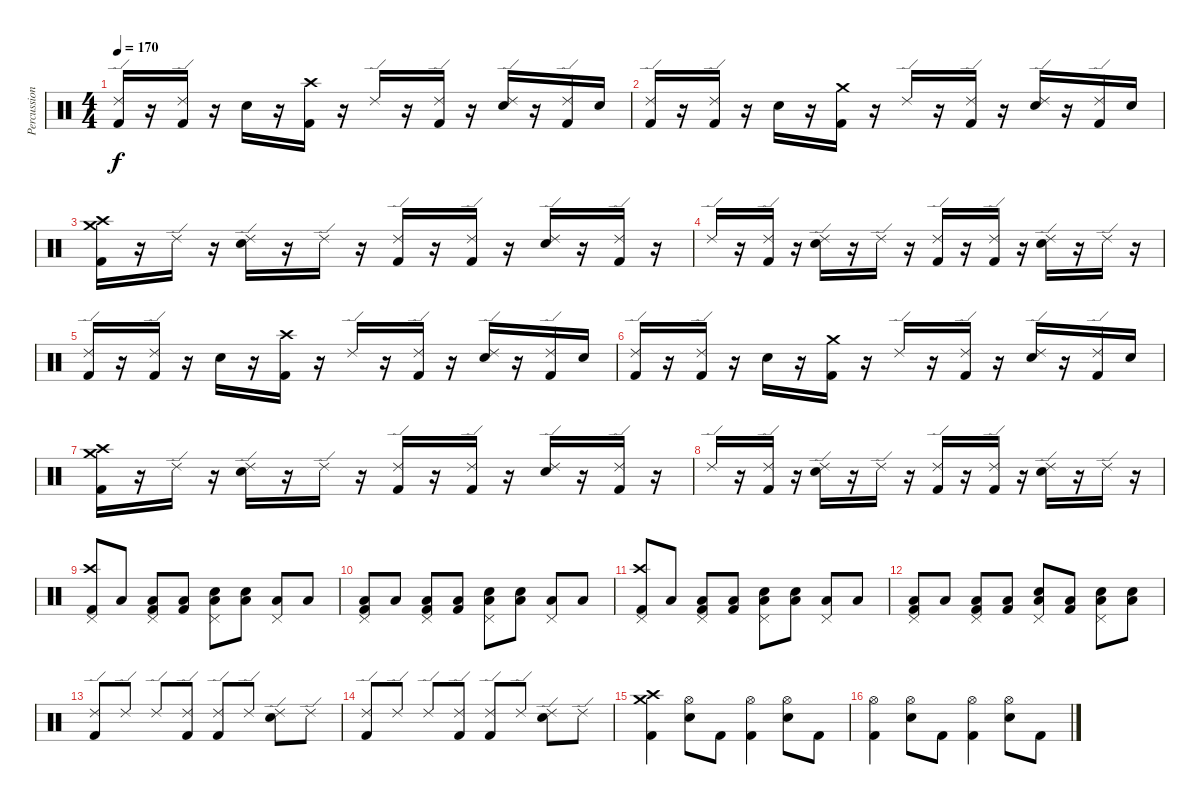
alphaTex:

\track ("Percussion" "Percussion") {instrument percussion}
\staff {score}
\articulation defaults
\ts (4 4)
\tempo 170
\clef neutral
\ks c
("Ride (edge) 2" "Kick (hit) 2").16{dy f} r.16 ("Ride (edge) 2" "Kick (hit) 2").16 r.16 "Snare (hit) 2".16 r.16 ("Crash high (hit)" "Kick (hit) 2").16 r.16 "Ride (edge) 2".16 r.16 ("Ride (edge) 2" "Kick (hit) 2").16 r.16 ("Ride (edge) 2" "Snare (hit) 2").16 r.16 ("Ride (edge) 2" "Kick (hit) 2").16 "Snare (hit) 2".16 |
("Ride (edge) 2" "Kick (hit) 2").16 r.16 ("Ride (edge) 2" "Kick (hit) 2").16 r.16 "Snare (hit) 2".16 r.16 ("Crash medium (hit)" "Kick (hit) 2").16 r.16 "Ride (edge) 2".16 r.16 ("Ride (edge) 2" "Kick (hit) 2").16 r.16 ("Ride (edge) 2" "Snare (hit) 2").16 r.16 ("Ride (edge) 2" "Kick (hit) 2").16 "Snare (hit) 2".16 |
("Crash medium (hit)" "Crash high (hit)" "Kick (hit) 2").16 r.16 "Ride (edge) 2".16 r.16 ("Ride (edge) 2" "Snare (hit) 2").16 r.16 "Ride (edge) 2".16 r.16 ("Ride (edge) 2" "Kick (hit) 2").16 r.16 ("Ride (edge) 2" "Kick (hit) 2").16 r.16 ("Ride (edge) 2" "Snare (hit) 2").16 r.16 ("Ride (edge) 2" "Kick (hit) 2").16 r.16 |
"Ride (edge) 2".16 r.16 ("Ride (edge) 2" "Kick (hit) 2").16 r.16 ("Ride (edge) 2" "Snare (hit) 2").16 r.16 "Ride (edge) 2".16 r.16 ("Ride (edge) 2" "Kick (hit) 2").16 r.16 ("Ride (edge) 2" "Kick (hit) 2").16 r.16 ("Ride (edge) 2" "Snare (hit) 2").16 r.16 "Ride (edge) 2".16 r.16 |
("Ride (edge) 2" "Kick (hit) 2").16 r.16 ("Ride (edge) 2" "Kick (hit) 2").16 r.16 "Snare (hit) 2".16 r.16 ("Crash high (hit)" "Kick (hit) 2").16 r.16 "Ride (edge) 2".16 r.16 ("Ride (edge) 2" "Kick (hit) 2").16 r.16 ("Ride (edge) 2" "Snare (hit) 2").16 r.16 ("Ride (edge) 2" "Kick (hit) 2").16 "Snare (hit) 2".16 |
("Ride (edge) 2" "Kick (hit) 2").16 r.16 ("Ride (edge) 2" "Kick (hit) 2").16 r.16 "Snare (hit) 2".16 r.16 ("Crash medium (hit)" "Kick (hit) 2").16 r.16 "Ride (edge) 2".16 r.16 ("Ride (edge) 2" "Kick (hit) 2").16 r.16 ("Ride (edge) 2" "Snare (hit) 2").16 r.16 ("Ride (edge) 2" "Kick (hit) 2").16 "Snare (hit) 2".16 |
("Crash medium (hit)" "Crash high (hit)" "Kick (hit) 2").16 r.16 "Ride (edge) 2".16 r.16 ("Ride (edge) 2" "Snare (hit) 2").16 r.16 "Ride (edge) 2".16 r.16 ("Ride (edge) 2" "Kick (hit) 2").16 r.16 ("Ride (edge) 2" "Kick (hit) 2").16 r.16 ("Ride (edge) 2" "Snare (hit) 2").16 r.16 ("Ride (edge) 2" "Kick (hit) 2").16 r.16 |
"Ride (edge) 2".16 r.16 ("Ride (edge) 2" "Kick (hit) 2").16 r.16 ("Ride (edge) 2" "Snare (hit) 2").16 r.16 "Ride (edge) 2".16 r.16 ("Ride (edge) 2" "Kick (hit) 2").16 r.16 ("Ride (edge) 2" "Kick (hit) 2").16 r.16 ("Ride (edge) 2" "Snare (hit) 2").16 r.16 "Ride (edge) 2".16 r.16 |
("Pedal Hi-Hat (hit)" "Crash high (hit)" "Kick (hit) 2").8 "Low Tom (hit)".8 ("Pedal Hi-Hat (hit)" "Low Tom (hit)" "Kick (hit) 2").8 ("Low Tom (hit)" "Kick (hit) 2").8 ("Pedal Hi-Hat (hit)" "Low Tom (hit)" "Snare (hit) 2").8 ("Low Tom (hit)" "Snare (hit) 2").8 ("Pedal Hi-Hat (hit)" "Low Tom (hit)").8 "Low Tom (hit)".8 |
("Pedal Hi-Hat (hit)" "Low Tom (hit)" "Kick (hit) 2").8 "Low Tom (hit)".8 ("Pedal Hi-Hat (hit)" "Low Tom (hit)" "Kick (hit) 2").8 ("Low Tom (hit)" "Kick (hit) 2").8 ("Pedal Hi-Hat (hit)" "Low Tom (hit)" "Snare (hit) 2").8 ("Low Tom (hit)" "Snare (hit) 2").8 ("Pedal Hi-Hat (hit)" "Low Tom (hit)").8 "Low Tom (hit)".8 |
("Pedal Hi-Hat (hit)" "Crash high (hit)" "Kick (hit) 2").8 "Low Tom (hit)".8 ("Pedal Hi-Hat (hit)" "Low Tom (hit)" "Kick (hit) 2").8 ("Low Tom (hit)" "Kick (hit) 2").8 ("Pedal Hi-Hat (hit)" "Low Tom (hit)" "Snare (hit) 2").8 ("Low Tom (hit)" "Snare (hit) 2").8 ("Pedal Hi-Hat (hit)" "Low Tom (hit)").8 "Low Tom (hit)".8 |
("Pedal Hi-Hat (hit)" "Low Tom (hit)" "Kick (hit) 2").8 "Low Tom (hit)".8 ("Pedal Hi-Hat (hit)" "Low Tom (hit)" "Kick (hit) 2").8 ("Low Tom (hit)" "Kick (hit) 2").8 ("Pedal Hi-Hat (hit)" "Low Tom (hit)" "Snare (hit) 2").8 ("Low Tom (hit)" "Kick (hit) 2").8 ("Pedal Hi-Hat (hit)" "Low Tom (hit)" "Snare (hit) 2").8 ("Low Tom (hit)" "Snare (hit) 2").8 |
("Kick (hit) 2" "Ride (edge) 2").8 "Ride (edge) 2".8 "Ride (edge) 2".8 ("Kick (hit) 2" "Ride (edge) 2").8 ("Kick (hit) 2" "Ride (edge) 2").8 "Ride (edge) 2".8 ("Snare (hit) 2" "Ride (edge) 2").8 "Ride (edge) 2".8 |
("Kick (hit) 2" "Ride (edge) 2").8 "Ride (edge) 2".8 "Ride (edge) 2".8 ("Kick (hit) 2" "Ride (edge) 2").8 ("Kick (hit) 2" "Ride (edge) 2").8 "Ride (edge) 2".8 ("Snare (hit) 2" "Ride (edge) 2").8 "Ride (edge) 2".8 |
("Crash medium (hit)" "Crash high (hit)" "Kick (hit) 2").4 ("Hi-Hat (open)" "Snare (hit) 2").8 "Kick (hit) 2".8 ("Hi-Hat (open)" "Kick (hit) 2").4 ("Hi-Hat (open)" "Snare (hit) 2").8 "Kick (hit) 2".8 |
("Hi-Hat (open)" "Kick (hit) 2").4 ("Hi-Hat (open)" "Snare (hit) 2").8 "Kick (hit) 2".8 ("Hi-Hat (open)" "Kick (hit) 2").4 ("Hi-Hat (open)" "Snare (hit) 2").8 "Kick (hit) 2".8
